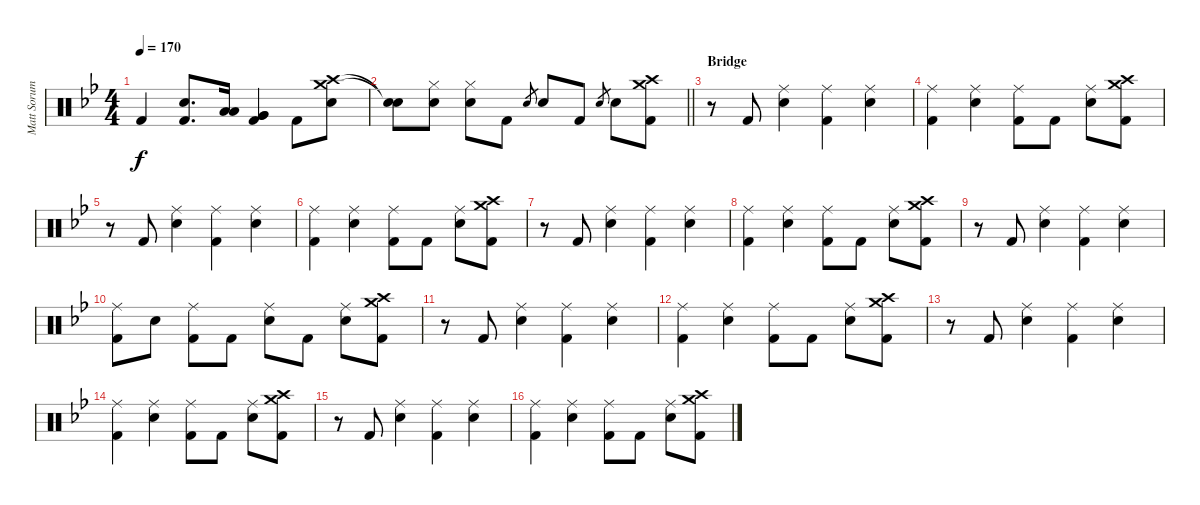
\track ("Matt Sorum - Drums" "Matt Sorum") {instrument percussion}
\staff {score}
\articulation defaults
\ts (4 4)
\tempo 170
\clef neutral
\ks bb "Kick (hit) 2".4{dy f}
("Snare (hit) 2" "Kick (hit) 2").8{d} ("Low Tom (hit)" "Low Tom (hit)").16 ("Very Low Tom (hit)" "Very Low Tom (hit)" "Kick (hit) 2").4 "Kick (hit) 2".8 ("Crash medium (hit)" "Crash high (hit)" "Snare (hit) 2").8 |
\barLineRight lightlight
("Snare (hit)"{t} "Snare (hit)"{t}).8 ("Hi-Hat (closed)" "Snare (hit) 2").8 ("Hi-Hat (closed)" "Snare (hit) 2").8 "Kick (hit) 2".8 "Snare (hit) 2".8{gr} "Snare (hit) 2".8 "Kick (hit) 2".8 "Snare (hit) 2".8{gr} "Snare (hit) 2".8 ("Crash medium (hit)" "Crash high (hit)" "Kick (hit) 2").8 |
\section ("" "Bridge")
r.8 "Kick (hit) 2".8 ("Ride (middle)" "Snare (hit) 2").4 ("Ride (middle)" "Kick (hit) 2").4 ("Ride (middle)" "Snare (hit) 2").4 |
("Ride (middle)" "Kick (hit) 2").4 ("Ride (middle)" "Snare (hit) 2").4 ("Ride (middle)" "Kick (hit) 2").8 "Kick (hit) 2".8 ("Ride (middle)" "Snare (hit) 2").8 ("Crash medium (hit)" "Crash high (hit)" "Kick (hit) 2").8 |
r.8 "Kick (hit) 2".8 ("Ride (middle)" "Snare (hit) 2").4 ("Ride (middle)" "Kick (hit) 2").4 ("Ride (middle)" "Snare (hit) 2").4 |
("Ride (middle)" "Kick (hit) 2").4 ("Ride (middle)" "Snare (hit) 2").4 ("Ride (middle)" "Kick (hit) 2").8 "Kick (hit) 2".8 ("Ride (middle)" "Snare (hit) 2").8 ("Crash medium (hit)" "Crash high (hit)" "Kick (hit) 2").8 |
r.8 "Kick (hit) 2".8 ("Ride (middle)" "Snare (hit) 2").4 ("Ride (middle)" "Kick (hit) 2").4 ("Ride (middle)" "Snare (hit) 2").4 |
("Ride (middle)" "Kick (hit) 2").4 ("Ride (middle)" "Snare (hit) 2").4 ("Ride (middle)" "Kick (hit) 2").8 "Kick (hit) 2".8 ("Ride (middle)" "Snare (hit) 2").8 ("Crash medium (hit)" "Crash high (hit)" "Kick (hit) 2").8 |
r.8 "Kick (hit) 2".8 ("Ride (middle)" "Snare (hit) 2").4 ("Ride (middle)" "Kick (hit) 2").4 ("Ride (middle)" "Snare (hit) 2").4 |
("Ride (middle)" "Kick (hit) 2").8 "Snare (hit) 2".8 ("Ride (middle)" "Kick (hit) 2").8 "Kick (hit) 2".8 ("Ride (middle)" "Snare (hit) 2").8 "Kick (hit) 2".8 ("Ride (middle)" "Snare (hit) 2").8 ("Crash medium (hit)" "Crash high (hit)" "Kick (hit) 2").8 |
r.8 "Kick (hit) 2".8 ("Ride (middle)" "Snare (hit) 2").4 ("Ride (middle)" "Kick (hit) 2").4 ("Ride (middle)" "Snare (hit) 2").4 |
("Ride (middle)" "Kick (hit) 2").4 ("Ride (middle)" "Snare (hit) 2").4 ("Ride (middle)" "Kick (hit) 2").8 "Kick (hit) 2".8 ("Ride (middle)" "Snare (hit) 2").8 ("Crash medium (hit)" "Crash high (hit)" "Kick (hit) 2").8 |
r.8 "Kick (hit) 2".8 ("Ride (middle)" "Snare (hit) 2").4 ("Ride (middle)" "Kick (hit) 2").4 ("Ride (middle)" "Snare (hit) 2").4 |
("Ride (middle)" "Kick (hit) 2").4 ("Ride (middle)" "Snare (hit) 2").4 ("Ride (middle)" "Kick (hit) 2").8 "Kick (hit) 2".8 ("Ride (middle)" "Snare (hit) 2").8 ("Crash medium (hit)" "Crash high (hit)" "Kick (hit) 2").8 |
r.8 "Kick (hit) 2".8 ("Ride (middle)" "Snare (hit) 2").4 ("Ride (middle)" "Kick (hit) 2").4 ("Ride (middle)" "Snare (hit) 2").4 |
("Ride (middle)" "Kick (hit) 2").4 ("Ride (middle)" "Snare (hit) 2").4 ("Ride (middle)" "Kick (hit) 2").8 "Kick (hit) 2".8 ("Ride (middle)" "Snare (hit) 2").8 ("Crash medium (hit)" "Crash high (hit)" "Kick (hit) 2").8
